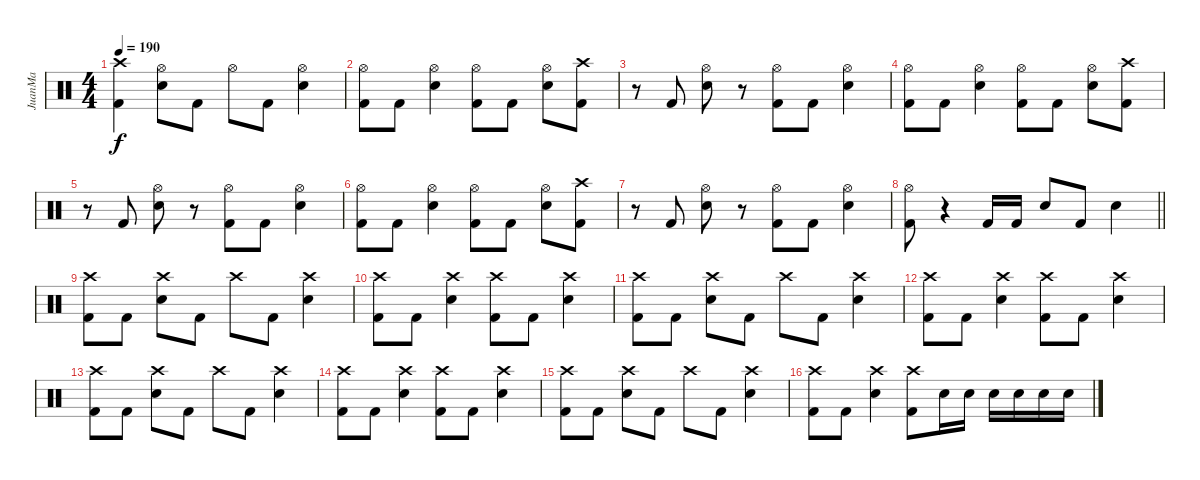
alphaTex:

\track ("JuanMa" "JuanMa") {instrument percussion}
\staff {score}
\articulation defaults
\ts (4 4)
\tempo 190
\clef neutral
\ks c
("Crash high (hit)" "Kick (hit) 2").4{dy f} ("Hi-Hat (open)" "Electric Snare (hit)").8 "Kick (hit) 2".8 "Hi-Hat (open)".8 "Kick (hit) 2".8 ("Hi-Hat (open)" "Electric Snare (hit)").4 |
("Hi-Hat (open)" "Kick (hit) 2").8 "Kick (hit) 2".8 ("Hi-Hat (open)" "Electric Snare (hit)").4 ("Hi-Hat (open)" "Kick (hit) 2").8 "Kick (hit) 2".8 ("Hi-Hat (open)" "Electric Snare (hit)").8 ("Crash high (hit)" "Kick (hit) 2").8 |
r.8 "Kick (hit) 2".8 ("Hi-Hat (open)" "Electric Snare (hit)").8 r.8 ("Hi-Hat (open)" "Kick (hit) 2").8 "Kick (hit) 2".8 ("Hi-Hat (open)" "Electric Snare (hit)").4 |
("Hi-Hat (open)" "Kick (hit) 2").8 "Kick (hit) 2".8 ("Hi-Hat (open)" "Electric Snare (hit)").4 ("Hi-Hat (open)" "Kick (hit) 2").8 "Kick (hit) 2".8 ("Hi-Hat (open)" "Electric Snare (hit)").8 ("Crash high (hit)" "Kick (hit) 2").8 |
r.8 "Kick (hit) 2".8 ("Hi-Hat (open)" "Electric Snare (hit)").8 r.8 ("Hi-Hat (open)" "Kick (hit) 2").8 "Kick (hit) 2".8 ("Hi-Hat (open)" "Electric Snare (hit)").4 |
("Hi-Hat (open)" "Kick (hit) 2").8 "Kick (hit) 2".8 ("Hi-Hat (open)" "Electric Snare (hit)").4 ("Hi-Hat (open)" "Kick (hit) 2").8 "Kick (hit) 2".8 ("Hi-Hat (open)" "Electric Snare (hit)").8 ("Crash high (hit)" "Kick (hit) 2").8 |
r.8 "Kick (hit) 2".8 ("Hi-Hat (open)" "Electric Snare (hit)").8 r.8 ("Hi-Hat (open)" "Kick (hit) 2").8 "Kick (hit) 2".8 ("Hi-Hat (open)" "Electric Snare (hit)").4 |
\barLineRight lightlight
("Hi-Hat (open)" "Kick (hit) 2").8 r.4{volume 0} "Kick (hit) 2".16{volume 13} "Kick (hit) 2".16 "Electric Snare (hit)".8 "Kick (hit) 2".8 "Electric Snare (hit)".4 |
("Crash high (hit)" "Kick (hit) 2").8 "Kick (hit) 2".8 ("Crash high (hit)" "Electric Snare (hit)").8 "Kick (hit) 2".8 "Crash high (hit)".8 "Kick (hit) 2".8 ("Crash high (hit)" "Electric Snare (hit)").4 |
("Crash high (hit)" "Kick (hit) 2").8 "Kick (hit) 2".8 ("Crash high (hit)" "Electric Snare (hit)").4 ("Crash high (hit)" "Kick (hit) 2").8 "Kick (hit) 2".8 ("Crash high (hit)" "Electric Snare (hit)").4 |
("Crash high (hit)" "Kick (hit) 2").8 "Kick (hit) 2".8 ("Crash high (hit)" "Electric Snare (hit)").8 "Kick (hit) 2".8 "Crash high (hit)".8 "Kick (hit) 2".8 ("Crash high (hit)" "Electric Snare (hit)").4 |
("Crash high (hit)" "Kick (hit) 2").8 "Kick (hit) 2".8 ("Crash high (hit)" "Electric Snare (hit)").4 ("Crash high (hit)" "Kick (hit) 2").8 "Kick (hit) 2".8 ("Crash high (hit)" "Electric Snare (hit)").4 |
("Crash high (hit)" "Kick (hit) 2").8 "Kick (hit) 2".8 ("Crash high (hit)" "Electric Snare (hit)").8 "Kick (hit) 2".8 "Crash high (hit)".8 "Kick (hit) 2".8 ("Crash high (hit)" "Electric Snare (hit)").4 |
("Crash high (hit)" "Kick (hit) 2").8 "Kick (hit) 2".8 ("Crash high (hit)" "Electric Snare (hit)").4 ("Crash high (hit)" "Kick (hit) 2").8 "Kick (hit) 2".8 ("Crash high (hit)" "Electric Snare (hit)").4 |
("Crash high (hit)" "Kick (hit) 2").8 "Kick (hit) 2".8 ("Crash high (hit)" "Electric Snare (hit)").8 "Kick (hit) 2".8 "Crash high (hit)".8 "Kick (hit) 2".8 ("Crash high (hit)" "Electric Snare (hit)").4 |
("Crash high (hit)" "Kick (hit) 2").8 "Kick (hit) 2".8 ("Crash high (hit)" "Electric Snare (hit)").4 ("Crash high (hit)" "Kick (hit) 2").8 "Electric Snare (hit)".16 "Electric Snare (hit)".16 "Electric Snare (hit)".16 "Electric Snare (hit)".16 "Electric Snare (hit)".16 "Electric Snare (hit)".16
